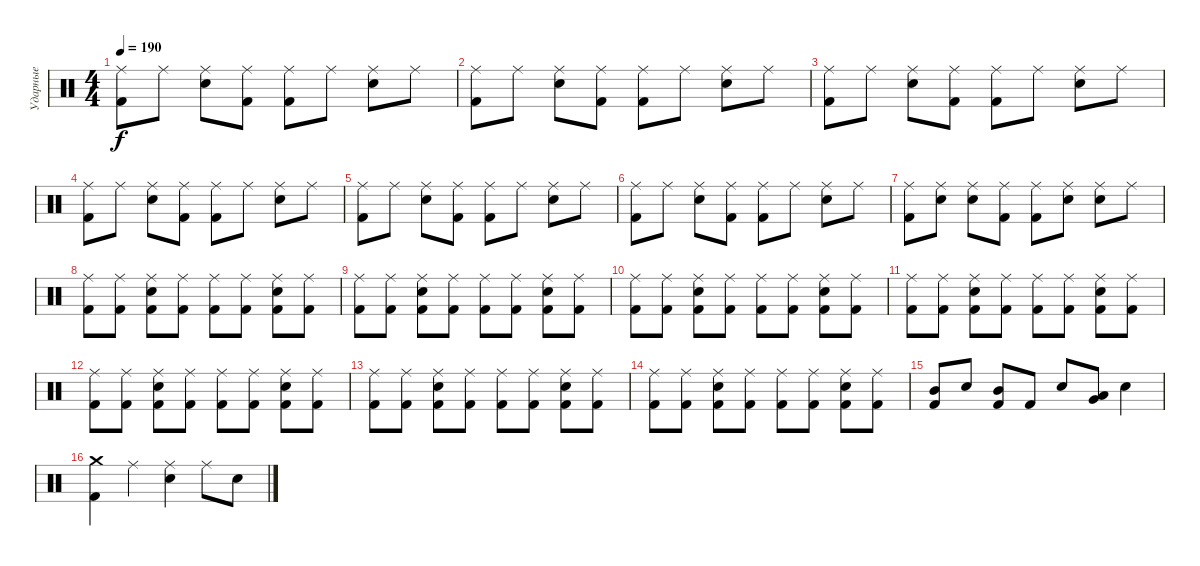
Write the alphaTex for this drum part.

\track ("Ударные" "Ударные") {instrument percussion}
\staff {score}
\articulation defaults
\ts (4 4)
\tempo 190
\clef neutral
\ks c
("Ride (middle)" "Kick (hit) 2").8{dy f} "Ride (middle)".8 ("Ride (middle)" "Electric Snare (hit)").8 ("Ride (middle)" "Kick (hit) 2").8 ("Ride (middle)" "Kick (hit) 2").8 "Ride (middle)".8 ("Ride (middle)" "Electric Snare (hit)").8 "Ride (middle)".8 |
("Ride (middle)" "Kick (hit) 2").8 "Ride (middle)".8 ("Ride (middle)" "Electric Snare (hit)").8 ("Ride (middle)" "Kick (hit) 2").8 ("Ride (middle)" "Kick (hit) 2").8 "Ride (middle)".8 ("Ride (middle)" "Electric Snare (hit)").8 "Ride (middle)".8 |
("Ride (middle)" "Kick (hit) 2").8 "Ride (middle)".8 ("Ride (middle)" "Electric Snare (hit)").8 ("Ride (middle)" "Kick (hit) 2").8 ("Ride (middle)" "Kick (hit) 2").8 "Ride (middle)".8 ("Ride (middle)" "Electric Snare (hit)").8 "Ride (middle)".8 |
("Ride (middle)" "Kick (hit) 2").8 "Ride (middle)".8 ("Ride (middle)" "Electric Snare (hit)").8 ("Ride (middle)" "Kick (hit) 2").8 ("Ride (middle)" "Kick (hit) 2").8 "Ride (middle)".8 ("Ride (middle)" "Electric Snare (hit)").8 "Ride (middle)".8 |
("Ride (middle)" "Kick (hit) 2").8 "Ride (middle)".8 ("Ride (middle)" "Electric Snare (hit)").8 ("Ride (middle)" "Kick (hit) 2").8 ("Ride (middle)" "Kick (hit) 2").8 "Ride (middle)".8 ("Ride (middle)" "Electric Snare (hit)").8 "Ride (middle)".8 |
("Ride (middle)" "Kick (hit) 2").8 "Ride (middle)".8 ("Ride (middle)" "Electric Snare (hit)").8 ("Ride (middle)" "Kick (hit) 2").8 ("Ride (middle)" "Kick (hit) 2").8 "Ride (middle)".8 ("Ride (middle)" "Electric Snare (hit)").8 "Ride (middle)".8 |
("Ride (middle)" "Kick (hit) 2").8 ("Ride (middle)" "Electric Snare (hit)").8 ("Ride (middle)" "Electric Snare (hit)").8 ("Ride (middle)" "Kick (hit) 2").8 ("Ride (middle)" "Kick (hit) 2").8 ("Ride (middle)" "Electric Snare (hit)").8 ("Ride (middle)" "Electric Snare (hit)").8 "Ride (middle)".8 |
("Ride (middle)" "Kick (hit) 2").8 ("Ride (middle)" "Kick (hit) 2").8 ("Electric Snare (hit)" "Ride (middle)" "Kick (hit) 2").8 ("Ride (middle)" "Kick (hit) 2").8 ("Ride (middle)" "Kick (hit) 2").8 ("Ride (middle)" "Kick (hit) 2").8 ("Electric Snare (hit)" "Ride (middle)" "Kick (hit) 2").8 ("Ride (middle)" "Kick (hit) 2").8 |
("Ride (middle)" "Kick (hit) 2").8 ("Ride (middle)" "Kick (hit) 2").8 ("Electric Snare (hit)" "Ride (middle)" "Kick (hit) 2").8 ("Ride (middle)" "Kick (hit) 2").8 ("Ride (middle)" "Kick (hit) 2").8 ("Ride (middle)" "Kick (hit) 2").8 ("Electric Snare (hit)" "Ride (middle)" "Kick (hit) 2").8 ("Ride (middle)" "Kick (hit) 2").8 |
("Ride (middle)" "Kick (hit) 2").8 ("Ride (middle)" "Kick (hit) 2").8 ("Electric Snare (hit)" "Ride (middle)" "Kick (hit) 2").8 ("Ride (middle)" "Kick (hit) 2").8 ("Ride (middle)" "Kick (hit) 2").8 ("Ride (middle)" "Kick (hit) 2").8 ("Electric Snare (hit)" "Ride (middle)" "Kick (hit) 2").8 ("Ride (middle)" "Kick (hit) 2").8 |
("Ride (middle)" "Kick (hit) 2").8 ("Ride (middle)" "Kick (hit) 2").8 ("Electric Snare (hit)" "Ride (middle)" "Kick (hit) 2").8 ("Ride (middle)" "Kick (hit) 2").8 ("Ride (middle)" "Kick (hit) 2").8 ("Ride (middle)" "Kick (hit) 2").8 ("Electric Snare (hit)" "Ride (middle)" "Kick (hit) 2").8 ("Ride (middle)" "Kick (hit) 2").8 |
("Ride (middle)" "Kick (hit) 2").8 ("Ride (middle)" "Kick (hit) 2").8 ("Electric Snare (hit)" "Ride (middle)" "Kick (hit) 2").8 ("Ride (middle)" "Kick (hit) 2").8 ("Ride (middle)" "Kick (hit) 2").8 ("Ride (middle)" "Kick (hit) 2").8 ("Electric Snare (hit)" "Ride (middle)" "Kick (hit) 2").8 ("Ride (middle)" "Kick (hit) 2").8 |
("Ride (middle)" "Kick (hit) 2").8 ("Ride (middle)" "Kick (hit) 2").8 ("Electric Snare (hit)" "Ride (middle)" "Kick (hit) 2").8 ("Ride (middle)" "Kick (hit) 2").8 ("Ride (middle)" "Kick (hit) 2").8 ("Ride (middle)" "Kick (hit) 2").8 ("Electric Snare (hit)" "Ride (middle)" "Kick (hit) 2").8 ("Ride (middle)" "Kick (hit) 2").8 |
("Ride (middle)" "Kick (hit) 2").8 ("Ride (middle)" "Kick (hit) 2").8 ("Electric Snare (hit)" "Ride (middle)" "Kick (hit) 2").8 ("Ride (middle)" "Kick (hit) 2").8 ("Ride (middle)" "Kick (hit) 2").8 ("Ride (middle)" "Kick (hit) 2").8 ("Electric Snare (hit)" "Ride (middle)" "Kick (hit) 2").8 ("Ride (middle)" "Kick (hit) 2").8 |
("Mid Tom (hit)" "Kick (hit) 2").8 "Electric Snare (hit)".8 ("Mid Tom (hit)" "Kick (hit) 2").8 "Kick (hit) 2".8 "Electric Snare (hit)".8 ("Low Tom (hit)" "Very Low Tom (hit)").8 "Electric Snare (hit)".4 |
("Crash medium (hit)" "Kick (hit) 2").4 "Ride (middle)".4 ("Ride (middle)" "Electric Snare (hit)").4 "Ride (middle)".8 "Electric Snare (hit)".8
